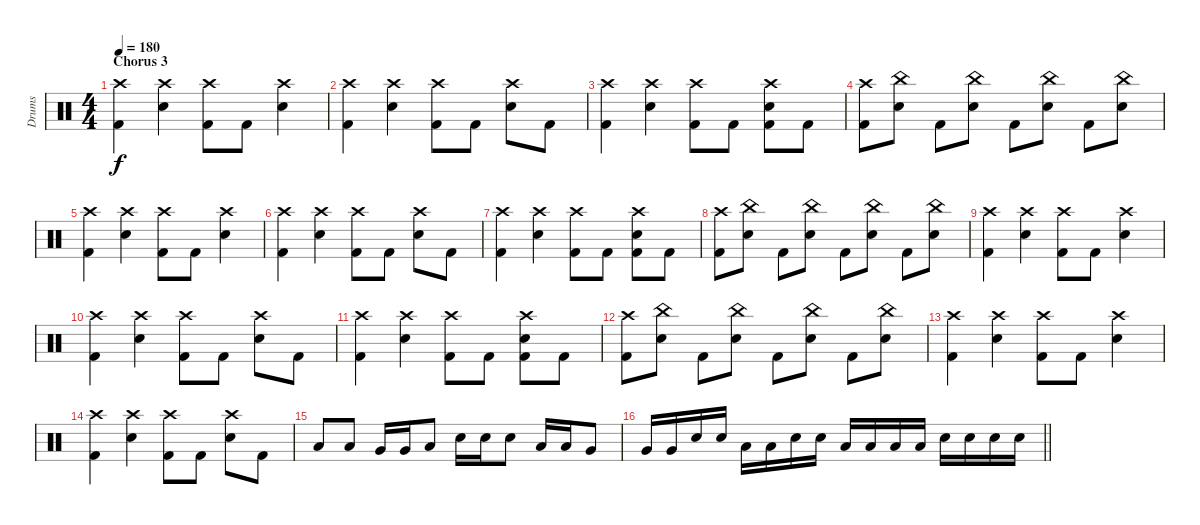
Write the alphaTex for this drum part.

\track ("Drums" "Drums") {instrument percussion}
\staff {score}
\articulation defaults
\ts (4 4)
\section ("" "Chorus 3")
\tempo 180
\clef neutral
\ks c
("Crash high (hit)" "Kick (hit) 2").4{dy f} ("Crash high (hit)" "Electric Snare (hit)").4 ("Crash high (hit)" "Kick (hit) 2").8 "Kick (hit) 2".8 ("Crash high (hit)" "Electric Snare (hit)").4 |
("Crash high (hit)" "Kick (hit) 2").4 ("Crash high (hit)" "Electric Snare (hit)").4 ("Crash high (hit)" "Kick (hit) 2").8 "Kick (hit) 2".8 ("Crash high (hit)" "Electric Snare (hit)").8 "Kick (hit) 2".8 |
("Crash high (hit)" "Kick (hit) 2").4 ("Crash high (hit)" "Electric Snare (hit)").4 ("Crash high (hit)" "Kick (hit) 2").8 "Kick (hit) 2".8 ("Crash high (hit)" "Electric Snare (hit)" "Kick (hit) 2").8 "Kick (hit) 2".8 |
("Crash high (hit)" "Kick (hit) 2").8 ("China (hit)" "Electric Snare (hit)").8 "Kick (hit) 2".8 ("China (hit)" "Electric Snare (hit)").8 "Kick (hit) 2".8 ("China (hit)" "Electric Snare (hit)").8 "Kick (hit) 2".8 ("China (hit)" "Electric Snare (hit)").8 |
("Crash high (hit)" "Kick (hit) 2").4 ("Crash high (hit)" "Electric Snare (hit)").4 ("Crash high (hit)" "Kick (hit) 2").8 "Kick (hit) 2".8 ("Crash high (hit)" "Electric Snare (hit)").4 |
("Crash high (hit)" "Kick (hit) 2").4 ("Crash high (hit)" "Electric Snare (hit)").4 ("Crash high (hit)" "Kick (hit) 2").8 "Kick (hit) 2".8 ("Crash high (hit)" "Electric Snare (hit)").8 "Kick (hit) 2".8 |
("Crash high (hit)" "Kick (hit) 2").4 ("Crash high (hit)" "Electric Snare (hit)").4 ("Crash high (hit)" "Kick (hit) 2").8 "Kick (hit) 2".8 ("Crash high (hit)" "Electric Snare (hit)" "Kick (hit) 2").8 "Kick (hit) 2".8 |
("Crash high (hit)" "Kick (hit) 2").8 ("China (hit)" "Electric Snare (hit)").8 "Kick (hit) 2".8 ("China (hit)" "Electric Snare (hit)").8 "Kick (hit) 2".8 ("China (hit)" "Electric Snare (hit)").8 "Kick (hit) 2".8 ("China (hit)" "Electric Snare (hit)").8 |
("Crash high (hit)" "Kick (hit) 2").4 ("Crash high (hit)" "Electric Snare (hit)").4 ("Crash high (hit)" "Kick (hit) 2").8 "Kick (hit) 2".8 ("Crash high (hit)" "Electric Snare (hit)").4 |
("Crash high (hit)" "Kick (hit) 2").4 ("Crash high (hit)" "Electric Snare (hit)").4 ("Crash high (hit)" "Kick (hit) 2").8 "Kick (hit) 2".8 ("Crash high (hit)" "Electric Snare (hit)").8 "Kick (hit) 2".8 |
("Crash high (hit)" "Kick (hit) 2").4 ("Crash high (hit)" "Electric Snare (hit)").4 ("Crash high (hit)" "Kick (hit) 2").8 "Kick (hit) 2".8 ("Crash high (hit)" "Electric Snare (hit)" "Kick (hit) 2").8 "Kick (hit) 2".8 |
("Crash high (hit)" "Kick (hit) 2").8 ("China (hit)" "Electric Snare (hit)").8 "Kick (hit) 2".8 ("China (hit)" "Electric Snare (hit)").8 "Kick (hit) 2".8 ("China (hit)" "Electric Snare (hit)").8 "Kick (hit) 2".8 ("China (hit)" "Electric Snare (hit)").8 |
("Crash high (hit)" "Kick (hit) 2").4 ("Crash high (hit)" "Electric Snare (hit)").4 ("Crash high (hit)" "Kick (hit) 2").8 "Kick (hit) 2".8 ("Crash high (hit)" "Electric Snare (hit)").4 |
("Crash high (hit)" "Kick (hit) 2").4 ("Crash high (hit)" "Electric Snare (hit)").4 ("Crash high (hit)" "Kick (hit) 2").8 "Kick (hit) 2".8 ("Crash high (hit)" "Electric Snare (hit)").8 "Kick (hit) 2".8 |
"Low Tom (hit)".8 "Low Tom (hit)".8 "Very Low Tom (hit)".16 "Very Low Tom (hit)".16 "Low Floor Tom (hit)".8 "Electric Snare (hit)".16 "Electric Snare (hit)".16 "Electric Snare (hit)".8 "Low Tom (hit)".16 "Low Tom (hit)".16 "Very Low Tom (hit)".8 |
\barLineRight lightlight "Very Low Tom (hit)".16 "Very Low Tom (hit)".16 "Electric Snare (hit)".16 "Electric Snare (hit)".16 "Low Tom (hit)".16 "Low Tom (hit)".16 "Electric Snare (hit)".16 "Electric Snare (hit)".16 "Low Tom (hit)".16 "Low Tom (hit)".16 "Low Tom (hit)".16 "Low Tom (hit)".16 "Electric Snare (hit)".16 "Electric Snare (hit)".16 "Electric Snare (hit)".16 "Electric Snare (hit)".16
